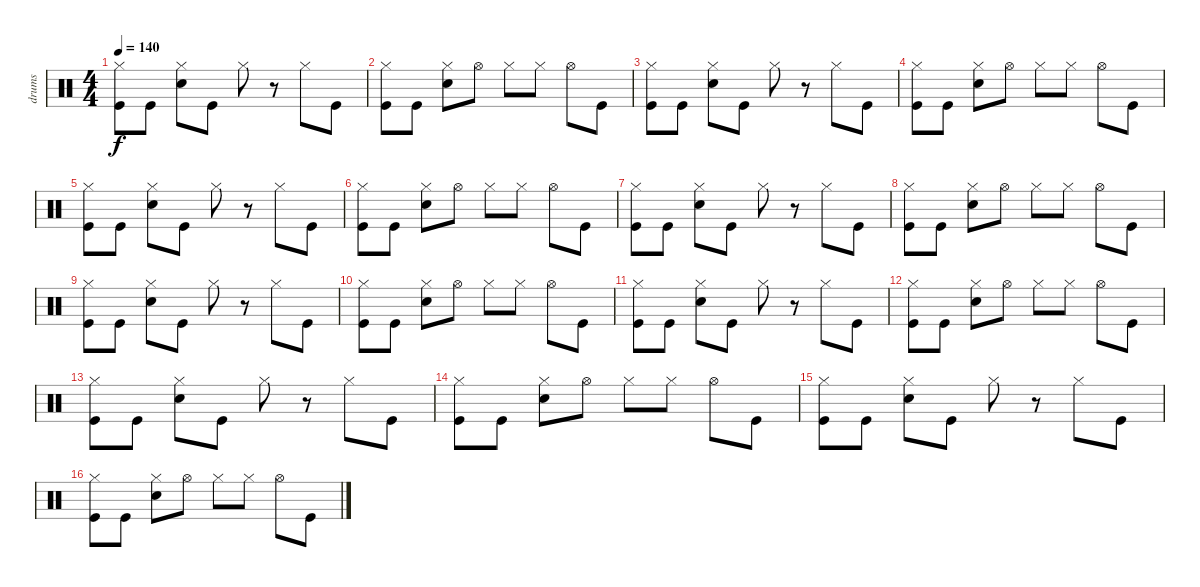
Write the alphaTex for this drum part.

\track ("drums" "drums") {instrument percussion}
\staff {score}
\articulation defaults
\ts (4 4)
\tempo 140
\clef neutral
\ks c
("Hi-Hat (closed)" "Kick (hit)").8{dy f} "Kick (hit)".8 ("Hi-Hat (closed)" "Electric Snare (hit)").8 "Kick (hit)".8 "Hi-Hat (closed)".8 r.8 "Hi-Hat (closed)".8 "Kick (hit)".8 |
("Hi-Hat (closed)" "Kick (hit)").8 "Kick (hit)".8 ("Hi-Hat (closed)" "Electric Snare (hit)").8 "Hi-Hat (open)".8 "Hi-Hat (closed)".8 "Hi-Hat (closed)".8 "Hi-Hat (open)".8 "Kick (hit)".8 |
("Hi-Hat (closed)" "Kick (hit)").8 "Kick (hit)".8 ("Hi-Hat (closed)" "Electric Snare (hit)").8 "Kick (hit)".8 "Hi-Hat (closed)".8 r.8 "Hi-Hat (closed)".8 "Kick (hit)".8 |
("Hi-Hat (closed)" "Kick (hit)").8 "Kick (hit)".8 ("Hi-Hat (closed)" "Electric Snare (hit)").8 "Hi-Hat (open)".8 "Hi-Hat (closed)".8 "Hi-Hat (closed)".8 "Hi-Hat (open)".8 "Kick (hit)".8 |
("Hi-Hat (closed)" "Kick (hit)").8 "Kick (hit)".8 ("Hi-Hat (closed)" "Electric Snare (hit)").8 "Kick (hit)".8 "Hi-Hat (closed)".8 r.8 "Hi-Hat (closed)".8 "Kick (hit)".8 |
("Hi-Hat (closed)" "Kick (hit)").8 "Kick (hit)".8 ("Hi-Hat (closed)" "Electric Snare (hit)").8 "Hi-Hat (open)".8 "Hi-Hat (closed)".8 "Hi-Hat (closed)".8 "Hi-Hat (open)".8 "Kick (hit)".8 |
("Hi-Hat (closed)" "Kick (hit)").8 "Kick (hit)".8 ("Hi-Hat (closed)" "Electric Snare (hit)").8 "Kick (hit)".8 "Hi-Hat (closed)".8 r.8 "Hi-Hat (closed)".8 "Kick (hit)".8 |
("Hi-Hat (closed)" "Kick (hit)").8 "Kick (hit)".8 ("Hi-Hat (closed)" "Electric Snare (hit)").8 "Hi-Hat (open)".8 "Hi-Hat (closed)".8 "Hi-Hat (closed)".8 "Hi-Hat (open)".8 "Kick (hit)".8 |
("Hi-Hat (closed)" "Kick (hit)").8 "Kick (hit)".8 ("Hi-Hat (closed)" "Electric Snare (hit)").8 "Kick (hit)".8 "Hi-Hat (closed)".8 r.8 "Hi-Hat (closed)".8 "Kick (hit)".8 |
("Hi-Hat (closed)" "Kick (hit)").8 "Kick (hit)".8 ("Hi-Hat (closed)" "Electric Snare (hit)").8 "Hi-Hat (open)".8 "Hi-Hat (closed)".8 "Hi-Hat (closed)".8 "Hi-Hat (open)".8 "Kick (hit)".8 |
("Hi-Hat (closed)" "Kick (hit)").8 "Kick (hit)".8 ("Hi-Hat (closed)" "Electric Snare (hit)").8 "Kick (hit)".8 "Hi-Hat (closed)".8 r.8 "Hi-Hat (closed)".8 "Kick (hit)".8 |
("Hi-Hat (closed)" "Kick (hit)").8 "Kick (hit)".8 ("Hi-Hat (closed)" "Electric Snare (hit)").8 "Hi-Hat (open)".8 "Hi-Hat (closed)".8 "Hi-Hat (closed)".8 "Hi-Hat (open)".8 "Kick (hit)".8 |
("Hi-Hat (closed)" "Kick (hit)").8 "Kick (hit)".8 ("Hi-Hat (closed)" "Electric Snare (hit)").8 "Kick (hit)".8 "Hi-Hat (closed)".8 r.8 "Hi-Hat (closed)".8 "Kick (hit)".8 |
("Hi-Hat (closed)" "Kick (hit)").8 "Kick (hit)".8 ("Hi-Hat (closed)" "Electric Snare (hit)").8 "Hi-Hat (open)".8 "Hi-Hat (closed)".8 "Hi-Hat (closed)".8 "Hi-Hat (open)".8 "Kick (hit)".8 |
("Hi-Hat (closed)" "Kick (hit)").8 "Kick (hit)".8 ("Hi-Hat (closed)" "Electric Snare (hit)").8 "Kick (hit)".8 "Hi-Hat (closed)".8 r.8 "Hi-Hat (closed)".8 "Kick (hit)".8 |
("Hi-Hat (closed)" "Kick (hit)").8 "Kick (hit)".8 ("Hi-Hat (closed)" "Electric Snare (hit)").8 "Hi-Hat (open)".8 "Hi-Hat (closed)".8 "Hi-Hat (closed)".8 "Hi-Hat (open)".8 "Kick (hit)".8
